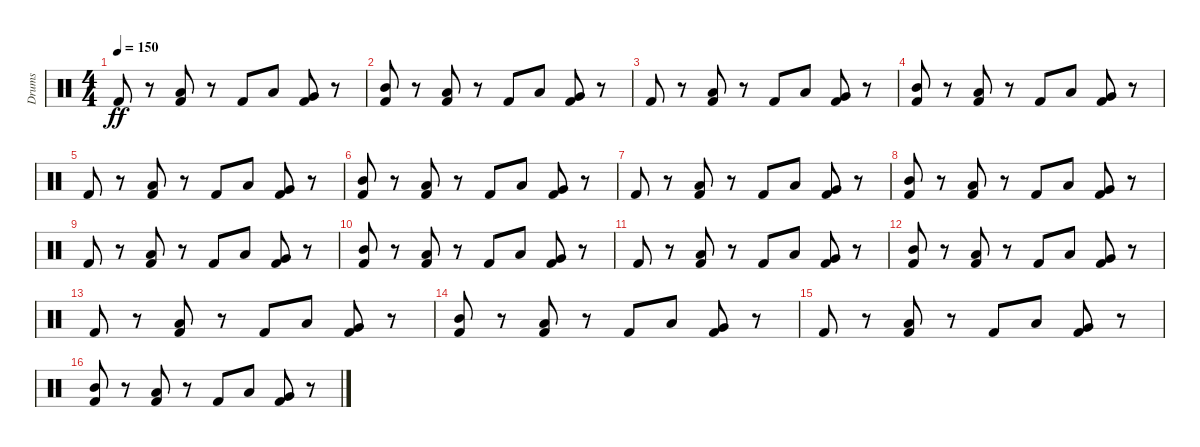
\track ("Drums" "Drums") {instrument percussion}
\staff {score}
\articulation defaults
\ts (4 4)
\tempo 150
\clef neutral
\ks c "Kick (hit) 2".8{dy ff}
r.8 ("Kick (hit) 2" "Low Tom (hit)").8 r.8 "Kick (hit) 2".8 "Low Tom (hit)".8 ("Kick (hit) 2" "Very Low Tom (hit)").8 r.8 |
("Mid Tom (hit)" "Kick (hit) 2").8 r.8 ("Kick (hit) 2" "Low Tom (hit)").8 r.8 "Kick (hit) 2".8 "Low Tom (hit)".8 ("Kick (hit) 2" "Very Low Tom (hit)").8 r.8 |
"Kick (hit) 2".8 r.8 ("Low Tom (hit)" "Kick (hit) 2").8 r.8 "Kick (hit) 2".8 "Low Tom (hit)".8 ("Very Low Tom (hit)" "Kick (hit) 2").8 r.8 |
("Mid Tom (hit)" "Kick (hit) 2").8 r.8 ("Low Tom (hit)" "Kick (hit) 2").8 r.8 "Kick (hit) 2".8 "Low Tom (hit)".8 ("Very Low Tom (hit)" "Kick (hit) 2").8 r.8 |
"Kick (hit) 2".8 r.8 ("Low Tom (hit)" "Kick (hit) 2").8 r.8 "Kick (hit) 2".8 "Low Tom (hit)".8 ("Very Low Tom (hit)" "Kick (hit) 2").8 r.8 |
("Kick (hit) 2" "Mid Tom (hit)").8 r.8 ("Low Tom (hit)" "Kick (hit) 2").8 r.8 "Kick (hit) 2".8 "Low Tom (hit)".8 ("Very Low Tom (hit)" "Kick (hit) 2").8 r.8 |
"Kick (hit) 2".8 r.8 ("Kick (hit) 2" "Low Tom (hit)").8 r.8 "Kick (hit) 2".8 "Low Tom (hit)".8 ("Kick (hit) 2" "Very Low Tom (hit)").8 r.8 |
("Kick (hit) 2" "Mid Tom (hit)").8 r.8 ("Kick (hit) 2" "Low Tom (hit)").8 r.8 "Kick (hit) 2".8 "Low Tom (hit)".8 ("Kick (hit) 2" "Very Low Tom (hit)").8 r.8 |
"Kick (hit) 2".8 r.8 ("Kick (hit) 2" "Low Tom (hit)").8 r.8 "Kick (hit) 2".8 "Low Tom (hit)".8 ("Kick (hit) 2" "Very Low Tom (hit)").8 r.8 |
("Mid Tom (hit)" "Kick (hit) 2").8 r.8 ("Kick (hit) 2" "Low Tom (hit)").8 r.8 "Kick (hit) 2".8 "Low Tom (hit)".8 ("Kick (hit) 2" "Very Low Tom (hit)").8 r.8 |
"Kick (hit) 2".8 r.8 ("Low Tom (hit)" "Kick (hit) 2").8 r.8 "Kick (hit) 2".8 "Low Tom (hit)".8 ("Very Low Tom (hit)" "Kick (hit) 2").8 r.8 |
("Mid Tom (hit)" "Kick (hit) 2").8 r.8 ("Low Tom (hit)" "Kick (hit) 2").8 r.8 "Kick (hit) 2".8 "Low Tom (hit)".8 ("Very Low Tom (hit)" "Kick (hit) 2").8 r.8 |
"Kick (hit) 2".8 r.8 ("Low Tom (hit)" "Kick (hit) 2").8 r.8 "Kick (hit) 2".8 "Low Tom (hit)".8 ("Very Low Tom (hit)" "Kick (hit) 2").8 r.8 |
("Kick (hit) 2" "Mid Tom (hit)").8 r.8 ("Low Tom (hit)" "Kick (hit) 2").8 r.8 "Kick (hit) 2".8 "Low Tom (hit)".8 ("Very Low Tom (hit)" "Kick (hit) 2").8 r.8 |
"Kick (hit) 2".8 r.8 ("Kick (hit) 2" "Low Tom (hit)").8 r.8 "Kick (hit) 2".8 "Low Tom (hit)".8 ("Kick (hit) 2" "Very Low Tom (hit)").8 r.8 |
("Kick (hit) 2" "Mid Tom (hit)").8 r.8 ("Kick (hit) 2" "Low Tom (hit)").8 r.8 "Kick (hit) 2".8 "Low Tom (hit)".8 ("Kick (hit) 2" "Very Low Tom (hit)").8 r.8
